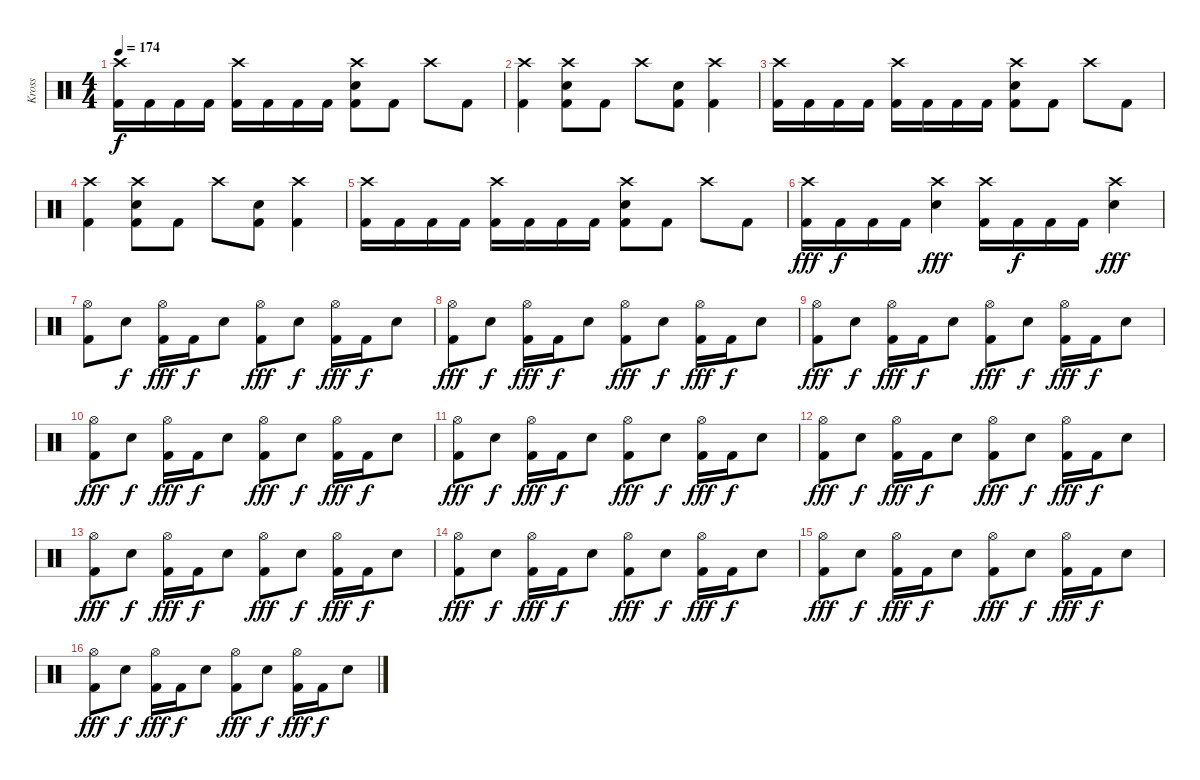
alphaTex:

\track ("Kross" "Kross") {instrument percussion}
\staff {score}
\articulation defaults
\ts (4 4)
\tempo 174
\clef neutral
\ks c
("Crash high (hit)" "Kick (hit) 2").16{dy f} "Kick (hit) 2".16 "Kick (hit) 2".16 "Kick (hit) 2".16 ("Crash high (hit)" "Kick (hit) 2").16 "Kick (hit) 2".16 "Kick (hit) 2".16 "Kick (hit) 2".16 ("Crash high (hit)" "Electric Snare (hit)" "Kick (hit) 2").8 "Kick (hit) 2".8 "Crash high (hit)".8 "Kick (hit) 2".8 |
("Crash high (hit)" "Kick (hit) 2").4 ("Crash high (hit)" "Electric Snare (hit)" "Kick (hit) 2").8 "Kick (hit) 2".8 "Crash high (hit)".8 ("Electric Snare (hit)" "Kick (hit) 2").8 ("Crash high (hit)" "Kick (hit) 2").4 |
("Crash high (hit)" "Kick (hit) 2").16 "Kick (hit) 2".16 "Kick (hit) 2".16 "Kick (hit) 2".16 ("Crash high (hit)" "Kick (hit) 2").16 "Kick (hit) 2".16 "Kick (hit) 2".16 "Kick (hit) 2".16 ("Crash high (hit)" "Electric Snare (hit)" "Kick (hit) 2").8 "Kick (hit) 2".8 "Crash high (hit)".8 "Kick (hit) 2".8 |
("Crash high (hit)" "Kick (hit) 2").4 ("Crash high (hit)" "Electric Snare (hit)" "Kick (hit) 2").8 "Kick (hit) 2".8 "Crash high (hit)".8 ("Electric Snare (hit)" "Kick (hit) 2").8 ("Crash high (hit)" "Kick (hit) 2").4 |
("Crash high (hit)" "Kick (hit) 2").16 "Kick (hit) 2".16 "Kick (hit) 2".16 "Kick (hit) 2".16 ("Crash high (hit)" "Kick (hit) 2").16 "Kick (hit) 2".16 "Kick (hit) 2".16 "Kick (hit) 2".16 ("Crash high (hit)" "Electric Snare (hit)" "Kick (hit) 2").8 "Kick (hit) 2".8 "Crash high (hit)".8 "Kick (hit) 2".8 |
("Crash high (hit)" "Kick (hit) 2").16{dy fff} "Kick (hit) 2".16{dy f} "Kick (hit) 2".16 "Kick (hit) 2".16 ("Crash high (hit)" "Electric Snare (hit)").4{dy fff} ("Crash high (hit)" "Kick (hit) 2").16 "Kick (hit) 2".16{dy f} "Kick (hit) 2".16 "Kick (hit) 2".16 ("Crash high (hit)" "Electric Snare (hit)").4{dy fff} |
("Hi-Hat (open)" "Kick (hit) 2").8 "Electric Snare (hit)".8{dy f} ("Hi-Hat (open)" "Kick (hit) 2").16{dy fff} "Kick (hit) 2".16{dy f} "Electric Snare (hit)".8 ("Hi-Hat (open)" "Kick (hit) 2").8{dy fff} "Electric Snare (hit)".8{dy f} ("Hi-Hat (open)" "Kick (hit) 2").16{dy fff} "Kick (hit) 2".16{dy f} "Electric Snare (hit)".8 |
("Hi-Hat (open)" "Kick (hit) 2").8{dy fff} "Electric Snare (hit)".8{dy f} ("Hi-Hat (open)" "Kick (hit) 2").16{dy fff} "Kick (hit) 2".16{dy f} "Electric Snare (hit)".8 ("Hi-Hat (open)" "Kick (hit) 2").8{dy fff} "Electric Snare (hit)".8{dy f} ("Hi-Hat (open)" "Kick (hit) 2").16{dy fff} "Kick (hit) 2".16{dy f} "Electric Snare (hit)".8 |
("Hi-Hat (open)" "Kick (hit) 2").8{dy fff} "Electric Snare (hit)".8{dy f} ("Hi-Hat (open)" "Kick (hit) 2").16{dy fff} "Kick (hit) 2".16{dy f} "Electric Snare (hit)".8 ("Hi-Hat (open)" "Kick (hit) 2").8{dy fff} "Electric Snare (hit)".8{dy f} ("Hi-Hat (open)" "Kick (hit) 2").16{dy fff} "Kick (hit) 2".16{dy f} "Electric Snare (hit)".8 |
("Hi-Hat (open)" "Kick (hit) 2").8{dy fff} "Electric Snare (hit)".8{dy f} ("Hi-Hat (open)" "Kick (hit) 2").16{dy fff} "Kick (hit) 2".16{dy f} "Electric Snare (hit)".8 ("Hi-Hat (open)" "Kick (hit) 2").8{dy fff} "Electric Snare (hit)".8{dy f} ("Hi-Hat (open)" "Kick (hit) 2").16{dy fff} "Kick (hit) 2".16{dy f} "Electric Snare (hit)".8 |
("Hi-Hat (open)" "Kick (hit) 2").8{dy fff} "Electric Snare (hit)".8{dy f} ("Hi-Hat (open)" "Kick (hit) 2").16{dy fff} "Kick (hit) 2".16{dy f} "Electric Snare (hit)".8 ("Hi-Hat (open)" "Kick (hit) 2").8{dy fff} "Electric Snare (hit)".8{dy f} ("Hi-Hat (open)" "Kick (hit) 2").16{dy fff} "Kick (hit) 2".16{dy f} "Electric Snare (hit)".8 |
("Hi-Hat (open)" "Kick (hit) 2").8{dy fff} "Electric Snare (hit)".8{dy f} ("Hi-Hat (open)" "Kick (hit) 2").16{dy fff} "Kick (hit) 2".16{dy f} "Electric Snare (hit)".8 ("Hi-Hat (open)" "Kick (hit) 2").8{dy fff} "Electric Snare (hit)".8{dy f} ("Hi-Hat (open)" "Kick (hit) 2").16{dy fff} "Kick (hit) 2".16{dy f} "Electric Snare (hit)".8 |
("Hi-Hat (open)" "Kick (hit) 2").8{dy fff} "Electric Snare (hit)".8{dy f} ("Hi-Hat (open)" "Kick (hit) 2").16{dy fff} "Kick (hit) 2".16{dy f} "Electric Snare (hit)".8 ("Hi-Hat (open)" "Kick (hit) 2").8{dy fff} "Electric Snare (hit)".8{dy f} ("Hi-Hat (open)" "Kick (hit) 2").16{dy fff} "Kick (hit) 2".16{dy f} "Electric Snare (hit)".8 |
("Hi-Hat (open)" "Kick (hit) 2").8{dy fff} "Electric Snare (hit)".8{dy f} ("Hi-Hat (open)" "Kick (hit) 2").16{dy fff} "Kick (hit) 2".16{dy f} "Electric Snare (hit)".8 ("Hi-Hat (open)" "Kick (hit) 2").8{dy fff} "Electric Snare (hit)".8{dy f} ("Hi-Hat (open)" "Kick (hit) 2").16{dy fff} "Kick (hit) 2".16{dy f} "Electric Snare (hit)".8 |
("Hi-Hat (open)" "Kick (hit) 2").8{dy fff} "Electric Snare (hit)".8{dy f} ("Hi-Hat (open)" "Kick (hit) 2").16{dy fff} "Kick (hit) 2".16{dy f} "Electric Snare (hit)".8 ("Hi-Hat (open)" "Kick (hit) 2").8{dy fff} "Electric Snare (hit)".8{dy f} ("Hi-Hat (open)" "Kick (hit) 2").16{dy fff} "Kick (hit) 2".16{dy f} "Electric Snare (hit)".8 |
("Hi-Hat (open)" "Kick (hit) 2").8{dy fff} "Electric Snare (hit)".8{dy f} ("Hi-Hat (open)" "Kick (hit) 2").16{dy fff} "Kick (hit) 2".16{dy f} "Electric Snare (hit)".8 ("Hi-Hat (open)" "Kick (hit) 2").8{dy fff} "Electric Snare (hit)".8{dy f} ("Hi-Hat (open)" "Kick (hit) 2").16{dy fff} "Kick (hit) 2".16{dy f} "Electric Snare (hit)".8
